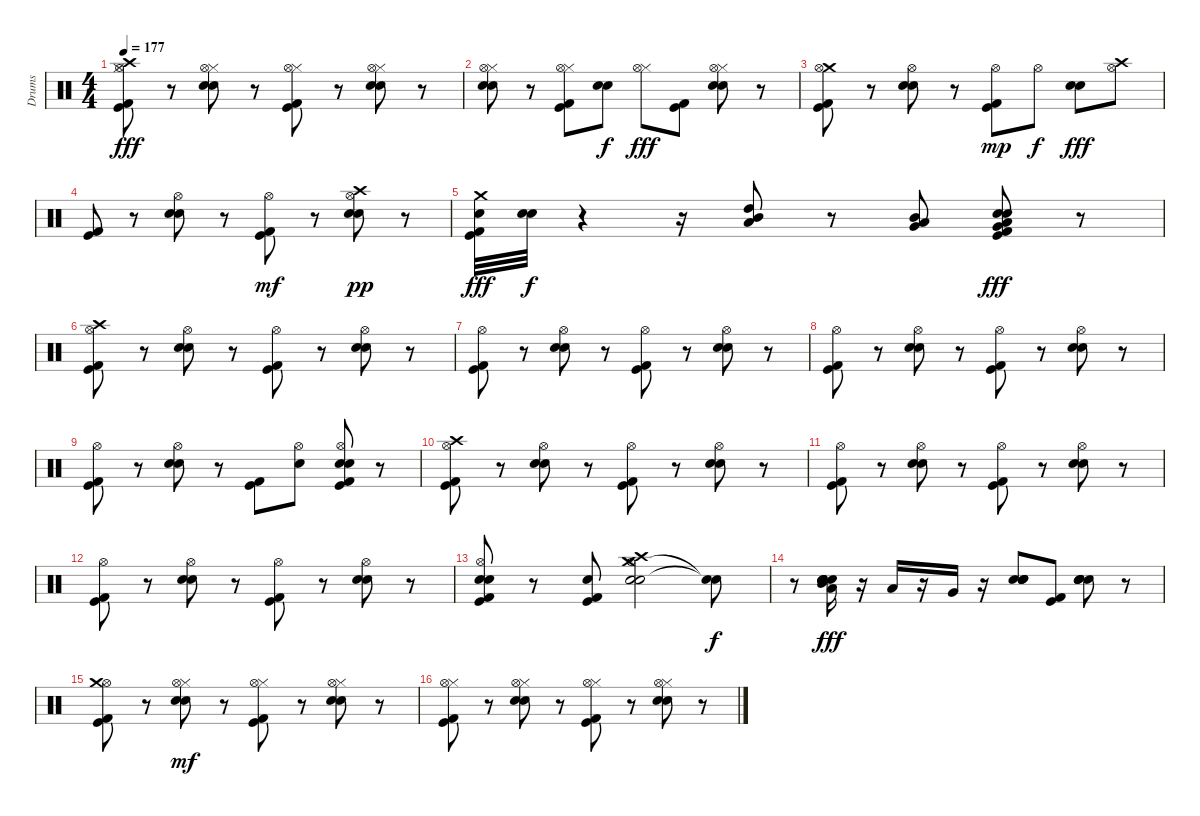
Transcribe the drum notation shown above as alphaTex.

\track ("Drums" "Drums") {instrument percussion}
\staff {score}
\articulation defaults
\ts (4 4)
\tempo 177
\clef neutral
\ks c
("Crash high (hit)" "Kick (hit) 2" "Kick (hit)" "Hi-Hat (closed)" "Hi-Hat (open)").8{dy fff} r.8 ("Electric Snare (hit)" "Snare (hit) 2" "Hi-Hat (closed)" "Hi-Hat (open)").8 r.8 ("Kick (hit) 2" "Kick (hit)" "Hi-Hat (closed)" "Hi-Hat (open)").8 r.8 ("Electric Snare (hit)" "Snare (hit) 2" "Hi-Hat (closed)" "Hi-Hat (open)").8 r.8 |
("Hi-Hat (closed)" "Hi-Hat (open)" "Electric Snare (hit)" "Snare (hit) 2").8 r.8 ("Hi-Hat (closed)" "Hi-Hat (open)" "Kick (hit) 2" "Kick (hit)").8 ("Electric Snare (hit)" "Snare (hit) 2").8{dy f} ("Hi-Hat (closed)" "Hi-Hat (open)").8{dy fff} ("Kick (hit) 2" "Kick (hit)").8 ("Electric Snare (hit)" "Snare (hit) 2" "Hi-Hat (closed)" "Hi-Hat (open)").8 r.8 |
("Kick (hit) 2" "Kick (hit)" "Crash medium (hit)" "Hi-Hat (open)").8 r.8 ("Hi-Hat (open)" "Electric Snare (hit)" "Snare (hit) 2").8 r.8 ("Kick (hit) 2" "Kick (hit)" "Hi-Hat (open)").8{dy mp} "Hi-Hat (open)".8{dy f} ("Electric Snare (hit)" "Snare (hit) 2").8{dy fff} ("Crash high (hit)" "Hi-Hat (open)").8 |
("Kick (hit) 2" "Kick (hit)").8 r.8 ("Electric Snare (hit)" "Snare (hit) 2" "Hi-Hat (open)").8 r.8 ("Kick (hit) 2" "Kick (hit)" "Hi-Hat (open)").8{dy mf} r.8 ("Electric Snare (hit)" "Snare (hit) 2" "Hi-Hat (open)" "Crash high (hit)").8{dy pp} r.8 |
("Crash medium (hit)" "Kick (hit) 2" "Kick (hit)" "Electric Snare (hit)").32{dy fff} ("Electric Snare (hit)" "Snare (hit) 2").32{dy f} r.4 r.16 ("Low Tom (hit)" "High Tom (hit)" "Mid Tom (hit)").8 r.8 ("Mid Tom (hit)" "Low Tom (hit)" "Very Low Tom (hit)").8 ("Electric Snare (hit)" "Snare (hit) 2" "Kick (hit)" "Kick (hit) 2" "Low Tom (hit)" "Very Low Tom (hit)").8{dy fff} r.8 |
("Hi-Hat (open)" "Kick (hit) 2" "Kick (hit)" "Crash high (hit)").8 r.8 ("Hi-Hat (open)" "Electric Snare (hit)" "Snare (hit) 2").8 r.8 ("Hi-Hat (open)" "Kick (hit) 2" "Kick (hit)").8 r.8 ("Hi-Hat (open)" "Electric Snare (hit)" "Snare (hit) 2").8 r.8 |
("Hi-Hat (open)" "Kick (hit) 2" "Kick (hit)").8 r.8 ("Hi-Hat (open)" "Electric Snare (hit)" "Snare (hit) 2").8 r.8 ("Hi-Hat (open)" "Kick (hit) 2" "Kick (hit)").8 r.8 ("Hi-Hat (open)" "Electric Snare (hit)" "Snare (hit) 2").8 r.8 |
("Hi-Hat (open)" "Kick (hit) 2" "Kick (hit)").8 r.8 ("Hi-Hat (open)" "Electric Snare (hit)" "Snare (hit) 2").8 r.8 ("Hi-Hat (open)" "Kick (hit) 2" "Kick (hit)").8 r.8 ("Hi-Hat (open)" "Electric Snare (hit)" "Snare (hit) 2").8 r.8 |
("Hi-Hat (open)" "Kick (hit)" "Kick (hit) 2").8 r.8 ("Hi-Hat (open)" "Electric Snare (hit)" "Snare (hit) 2").8 r.8 ("Kick (hit) 2" "Kick (hit)").8 ("Hi-Hat (open)" "Snare (hit) 2").8 ("Hi-Hat (open)" "Electric Snare (hit)" "Snare (hit) 2" "Kick (hit) 2" "Kick (hit)").8 r.8 |
("Hi-Hat (open)" "Kick (hit) 2" "Kick (hit)" "Crash high (hit)").8 r.8 ("Hi-Hat (open)" "Electric Snare (hit)" "Snare (hit) 2").8 r.8 ("Hi-Hat (open)" "Kick (hit) 2" "Kick (hit)").8 r.8 ("Hi-Hat (open)" "Electric Snare (hit)" "Snare (hit) 2").8 r.8 |
("Hi-Hat (open)" "Kick (hit) 2" "Kick (hit)").8 r.8 ("Hi-Hat (open)" "Electric Snare (hit)" "Snare (hit) 2").8 r.8 ("Hi-Hat (open)" "Kick (hit) 2" "Kick (hit)").8 r.8 ("Hi-Hat (open)" "Electric Snare (hit)" "Snare (hit) 2").8 r.8 |
("Hi-Hat (open)" "Kick (hit) 2" "Kick (hit)").8 r.8 ("Hi-Hat (open)" "Electric Snare (hit)" "Snare (hit) 2").8 r.8 ("Hi-Hat (open)" "Kick (hit) 2" "Kick (hit)").8 r.8 ("Hi-Hat (open)" "Electric Snare (hit)" "Snare (hit) 2").8 r.8 |
("Hi-Hat (open)" "Electric Snare (hit)" "Snare (hit) 2" "Kick (hit) 2" "Kick (hit)").8 r.8 ("Snare (hit) 2" "Kick (hit) 2" "Kick (hit)").8 ("Hi-Hat (open)" "Electric Snare (hit)" "Snare (hit) 2" "Crash high (hit)" "Crash medium (hit)").2 ("Snare (hit)"{t} "Snare (hit)"{t}).8{dy f} |
r.8 ("Low Tom (hit)" "Snare (hit) 2" "Electric Snare (hit)" "Mid Tom (hit)" "Electric Snare (hit)" "Snare (hit) 2").16{dy fff} r.16 "Low Tom (hit)".16 r.16 "Very Low Tom (hit)".16 r.16 ("Snare (hit) 2" "Electric Snare (hit)" "Electric Snare (hit)" "Snare (hit) 2").8 ("Kick (hit)" "Kick (hit) 2").8 ("Electric Snare (hit)" "Snare (hit) 2" "Electric Snare (hit)" "Snare (hit) 2").8 r.8 |
("Hi-Hat (open)" "Kick (hit) 2" "Kick (hit)" "Crash medium (hit)").8 r.8 ("Electric Snare (hit)" "Snare (hit) 2" "Hi-Hat (closed)" "Hi-Hat (open)").8{dy mf} r.8 ("Kick (hit) 2" "Kick (hit)" "Hi-Hat (closed)" "Hi-Hat (open)").8 r.8 ("Electric Snare (hit)" "Snare (hit) 2" "Hi-Hat (closed)" "Hi-Hat (open)").8 r.8 |
("Hi-Hat (closed)" "Kick (hit) 2" "Kick (hit)" "Hi-Hat (open)").8 r.8 ("Hi-Hat (closed)" "Electric Snare (hit)" "Snare (hit) 2" "Hi-Hat (open)").8 r.8 ("Hi-Hat (closed)" "Kick (hit) 2" "Kick (hit)" "Hi-Hat (open)").8 r.8 ("Hi-Hat (closed)" "Electric Snare (hit)" "Snare (hit) 2" "Hi-Hat (open)").8 r.8
